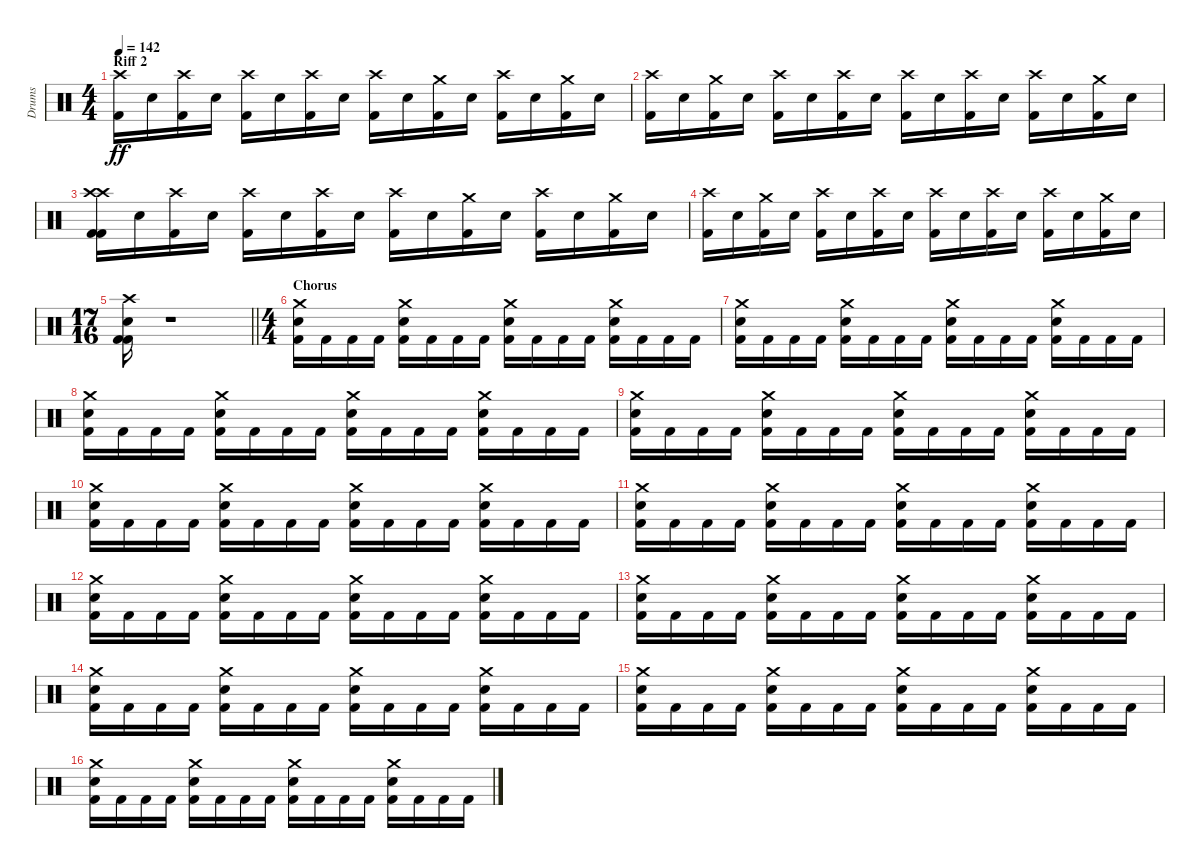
\track ("Drums" "Drums") {instrument percussion}
\staff {score}
\articulation defaults
\ts (4 4)
\section ("" "Riff 2")
\tempo 142
\clef neutral
\ks c
("Crash high (hit)" "Kick (hit) 2").16{dy ff} "Snare (hit) 2".16 ("Crash high (hit)" "Kick (hit) 2").16 "Snare (hit) 2".16 ("Crash high (hit)" "Kick (hit) 2").16 "Snare (hit) 2".16 ("Crash high (hit)" "Kick (hit) 2").16 "Snare (hit) 2".16 ("Crash high (hit)" "Kick (hit) 2").16 "Snare (hit) 2".16 ("Crash medium (hit)" "Kick (hit) 2").16 "Snare (hit) 2".16 ("Crash high (hit)" "Kick (hit) 2").16 "Snare (hit) 2".16 ("Crash medium (hit)" "Kick (hit) 2").16 "Snare (hit) 2".16 |
("Crash high (hit)" "Kick (hit) 2").16 "Snare (hit) 2".16 ("Crash medium (hit)" "Kick (hit) 2").16 "Snare (hit) 2".16 ("Crash high (hit)" "Kick (hit) 2").16 "Snare (hit) 2".16 ("Crash high (hit)" "Kick (hit) 2").16 "Snare (hit) 2".16 ("Crash high (hit)" "Kick (hit) 2").16 "Snare (hit) 2".16 ("Crash high (hit)" "Kick (hit) 2").16 "Snare (hit) 2".16 ("Crash high (hit)" "Kick (hit) 2").16 "Snare (hit) 2".16 ("Crash medium (hit)" "Kick (hit) 2").16 "Snare (hit) 2".16 |
("Crash high (hit)" "Kick (hit) 2" "Crash high (hit)" "Kick (hit) 2").16 "Snare (hit) 2".16 ("Crash high (hit)" "Kick (hit) 2").16 "Snare (hit) 2".16 ("Crash high (hit)" "Kick (hit) 2").16 "Snare (hit) 2".16 ("Crash high (hit)" "Kick (hit) 2").16 "Snare (hit) 2".16 ("Crash high (hit)" "Kick (hit) 2").16 "Snare (hit) 2".16 ("Crash medium (hit)" "Kick (hit) 2").16 "Snare (hit) 2".16 ("Crash high (hit)" "Kick (hit) 2").16 "Snare (hit) 2".16 ("Crash medium (hit)" "Kick (hit) 2").16 "Snare (hit) 2".16 |
("Crash high (hit)" "Kick (hit) 2").16 "Snare (hit) 2".16 ("Crash medium (hit)" "Kick (hit) 2").16 "Snare (hit) 2".16 ("Crash high (hit)" "Kick (hit) 2").16 "Snare (hit) 2".16 ("Crash high (hit)" "Kick (hit) 2").16 "Snare (hit) 2".16 ("Crash high (hit)" "Kick (hit) 2").16 "Snare (hit) 2".16 ("Crash high (hit)" "Kick (hit) 2").16 "Snare (hit) 2".16 ("Crash high (hit)" "Kick (hit) 2").16 "Snare (hit) 2".16 ("Crash medium (hit)" "Kick (hit) 2").16 "Snare (hit) 2".16 |
\ts (17 16)
\barLineRight lightlight
("Crash high (hit)" "Kick (hit) 2" "Kick (hit) 2" "Snare (hit) 2").16 r.1 |
\ts (4 4)
\section ("" "Chorus")
("Crash medium (hit)" "Kick (hit) 2" "Snare (hit) 2").16 "Kick (hit) 2".16 "Kick (hit) 2".16 "Kick (hit) 2".16 ("Crash medium (hit)" "Kick (hit) 2" "Snare (hit) 2").16 "Kick (hit) 2".16 "Kick (hit) 2".16 "Kick (hit) 2".16 ("Crash medium (hit)" "Kick (hit) 2" "Snare (hit) 2").16 "Kick (hit) 2".16 "Kick (hit) 2".16 "Kick (hit) 2".16 ("Crash medium (hit)" "Kick (hit) 2" "Snare (hit) 2").16 "Kick (hit) 2".16 "Kick (hit) 2".16 "Kick (hit) 2".16 |
("Crash medium (hit)" "Kick (hit) 2" "Snare (hit) 2").16 "Kick (hit) 2".16 "Kick (hit) 2".16 "Kick (hit) 2".16 ("Crash medium (hit)" "Kick (hit) 2" "Snare (hit) 2").16 "Kick (hit) 2".16 "Kick (hit) 2".16 "Kick (hit) 2".16 ("Crash medium (hit)" "Kick (hit) 2" "Snare (hit) 2").16 "Kick (hit) 2".16 "Kick (hit) 2".16 "Kick (hit) 2".16 ("Crash medium (hit)" "Kick (hit) 2" "Snare (hit) 2").16 "Kick (hit) 2".16 "Kick (hit) 2".16 "Kick (hit) 2".16 |
("Crash medium (hit)" "Kick (hit) 2" "Snare (hit) 2").16 "Kick (hit) 2".16 "Kick (hit) 2".16 "Kick (hit) 2".16 ("Crash medium (hit)" "Kick (hit) 2" "Snare (hit) 2").16 "Kick (hit) 2".16 "Kick (hit) 2".16 "Kick (hit) 2".16 ("Crash medium (hit)" "Kick (hit) 2" "Snare (hit) 2").16 "Kick (hit) 2".16 "Kick (hit) 2".16 "Kick (hit) 2".16 ("Crash medium (hit)" "Kick (hit) 2" "Snare (hit) 2").16 "Kick (hit) 2".16 "Kick (hit) 2".16 "Kick (hit) 2".16 |
("Crash medium (hit)" "Kick (hit) 2" "Snare (hit) 2").16 "Kick (hit) 2".16 "Kick (hit) 2".16 "Kick (hit) 2".16 ("Crash medium (hit)" "Kick (hit) 2" "Snare (hit) 2").16 "Kick (hit) 2".16 "Kick (hit) 2".16 "Kick (hit) 2".16 ("Crash medium (hit)" "Kick (hit) 2" "Snare (hit) 2").16 "Kick (hit) 2".16 "Kick (hit) 2".16 "Kick (hit) 2".16 ("Crash medium (hit)" "Kick (hit) 2" "Snare (hit) 2").16 "Kick (hit) 2".16 "Kick (hit) 2".16 "Kick (hit) 2".16 |
("Crash medium (hit)" "Kick (hit) 2" "Snare (hit) 2").16 "Kick (hit) 2".16 "Kick (hit) 2".16 "Kick (hit) 2".16 ("Crash medium (hit)" "Kick (hit) 2" "Snare (hit) 2").16 "Kick (hit) 2".16 "Kick (hit) 2".16 "Kick (hit) 2".16 ("Crash medium (hit)" "Kick (hit) 2" "Snare (hit) 2").16 "Kick (hit) 2".16 "Kick (hit) 2".16 "Kick (hit) 2".16 ("Crash medium (hit)" "Kick (hit) 2" "Snare (hit) 2").16 "Kick (hit) 2".16 "Kick (hit) 2".16 "Kick (hit) 2".16 |
("Crash medium (hit)" "Kick (hit) 2" "Snare (hit) 2").16 "Kick (hit) 2".16 "Kick (hit) 2".16 "Kick (hit) 2".16 ("Crash medium (hit)" "Kick (hit) 2" "Snare (hit) 2").16 "Kick (hit) 2".16 "Kick (hit) 2".16 "Kick (hit) 2".16 ("Crash medium (hit)" "Kick (hit) 2" "Snare (hit) 2").16 "Kick (hit) 2".16 "Kick (hit) 2".16 "Kick (hit) 2".16 ("Crash medium (hit)" "Kick (hit) 2" "Snare (hit) 2").16 "Kick (hit) 2".16 "Kick (hit) 2".16 "Kick (hit) 2".16 |
("Crash medium (hit)" "Kick (hit) 2" "Snare (hit) 2").16 "Kick (hit) 2".16 "Kick (hit) 2".16 "Kick (hit) 2".16 ("Crash medium (hit)" "Kick (hit) 2" "Snare (hit) 2").16 "Kick (hit) 2".16 "Kick (hit) 2".16 "Kick (hit) 2".16 ("Crash medium (hit)" "Kick (hit) 2" "Snare (hit) 2").16 "Kick (hit) 2".16 "Kick (hit) 2".16 "Kick (hit) 2".16 ("Crash medium (hit)" "Kick (hit) 2" "Snare (hit) 2").16 "Kick (hit) 2".16 "Kick (hit) 2".16 "Kick (hit) 2".16 |
("Crash medium (hit)" "Kick (hit) 2" "Snare (hit) 2").16 "Kick (hit) 2".16 "Kick (hit) 2".16 "Kick (hit) 2".16 ("Crash medium (hit)" "Kick (hit) 2" "Snare (hit) 2").16 "Kick (hit) 2".16 "Kick (hit) 2".16 "Kick (hit) 2".16 ("Crash medium (hit)" "Kick (hit) 2" "Snare (hit) 2").16 "Kick (hit) 2".16 "Kick (hit) 2".16 "Kick (hit) 2".16 ("Crash medium (hit)" "Kick (hit) 2" "Snare (hit) 2").16 "Kick (hit) 2".16 "Kick (hit) 2".16 "Kick (hit) 2".16 |
("Crash medium (hit)" "Kick (hit) 2" "Snare (hit) 2").16 "Kick (hit) 2".16 "Kick (hit) 2".16 "Kick (hit) 2".16 ("Crash medium (hit)" "Kick (hit) 2" "Snare (hit) 2").16 "Kick (hit) 2".16 "Kick (hit) 2".16 "Kick (hit) 2".16 ("Crash medium (hit)" "Kick (hit) 2" "Snare (hit) 2").16 "Kick (hit) 2".16 "Kick (hit) 2".16 "Kick (hit) 2".16 ("Crash medium (hit)" "Kick (hit) 2" "Snare (hit) 2").16 "Kick (hit) 2".16 "Kick (hit) 2".16 "Kick (hit) 2".16 |
("Crash medium (hit)" "Kick (hit) 2" "Snare (hit) 2").16 "Kick (hit) 2".16 "Kick (hit) 2".16 "Kick (hit) 2".16 ("Crash medium (hit)" "Kick (hit) 2" "Snare (hit) 2").16 "Kick (hit) 2".16 "Kick (hit) 2".16 "Kick (hit) 2".16 ("Crash medium (hit)" "Kick (hit) 2" "Snare (hit) 2").16 "Kick (hit) 2".16 "Kick (hit) 2".16 "Kick (hit) 2".16 ("Crash medium (hit)" "Kick (hit) 2" "Snare (hit) 2").16 "Kick (hit) 2".16 "Kick (hit) 2".16 "Kick (hit) 2".16 |
("Crash medium (hit)" "Kick (hit) 2" "Snare (hit) 2").16 "Kick (hit) 2".16 "Kick (hit) 2".16 "Kick (hit) 2".16 ("Crash medium (hit)" "Kick (hit) 2" "Snare (hit) 2").16 "Kick (hit) 2".16 "Kick (hit) 2".16 "Kick (hit) 2".16 ("Crash medium (hit)" "Kick (hit) 2" "Snare (hit) 2").16 "Kick (hit) 2".16 "Kick (hit) 2".16 "Kick (hit) 2".16 ("Crash medium (hit)" "Kick (hit) 2" "Snare (hit) 2").16 "Kick (hit) 2".16 "Kick (hit) 2".16 "Kick (hit) 2".16
